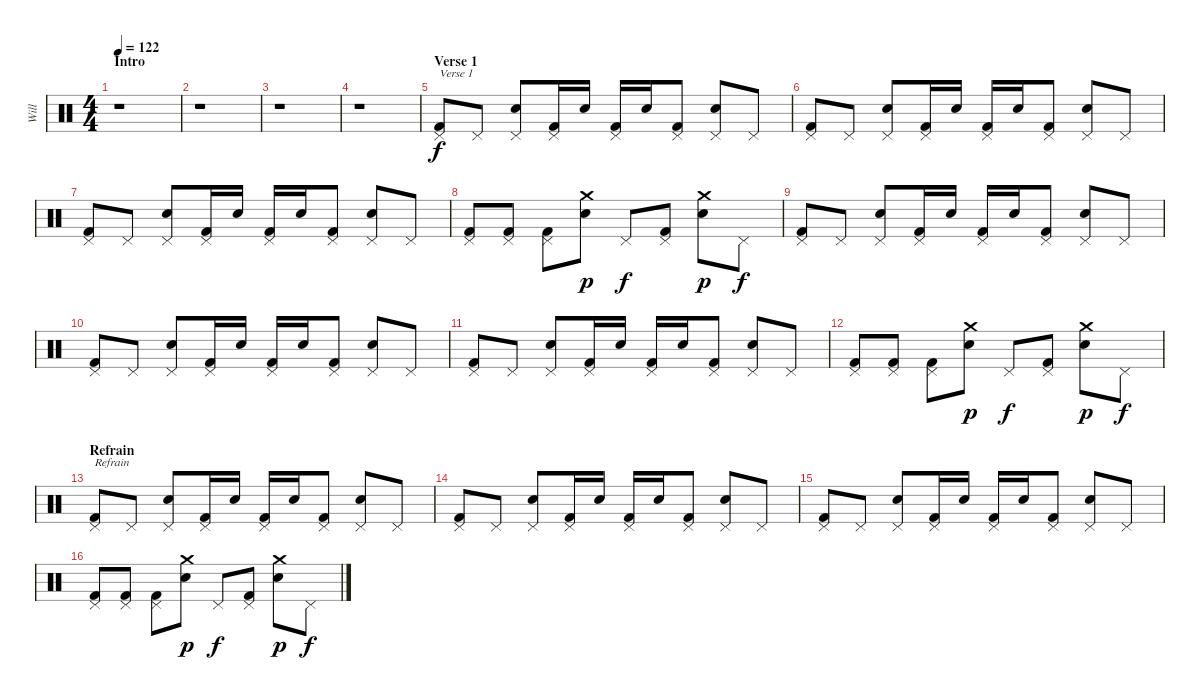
\track ("Will" "Will") {instrument percussion}
\staff {score}
\articulation defaults
\ts (4 4)
\section ("" "Intro")
\tempo 122
\clef neutral
\ks c
r.1{dy f} |
r.1 |
r.1 |
r.1 |
\section ("" "Verse 1")
("Pedal Hi-Hat (hit)" "Kick (hit) 2").8{txt "Verse 1"} "Pedal Hi-Hat (hit)".8 ("Pedal Hi-Hat (hit)" "Electric Snare (hit)").8 ("Pedal Hi-Hat (hit)" "Kick (hit) 2").16 "Electric Snare (hit)".16 ("Pedal Hi-Hat (hit)" "Kick (hit) 2").16 "Electric Snare (hit)".16 ("Pedal Hi-Hat (hit)" "Kick (hit) 2").8 ("Pedal Hi-Hat (hit)" "Electric Snare (hit)").8 "Pedal Hi-Hat (hit)".8 |
("Pedal Hi-Hat (hit)" "Kick (hit) 2").8 "Pedal Hi-Hat (hit)".8 ("Pedal Hi-Hat (hit)" "Electric Snare (hit)").8 ("Pedal Hi-Hat (hit)" "Kick (hit) 2").16 "Electric Snare (hit)".16 ("Pedal Hi-Hat (hit)" "Kick (hit) 2").16 "Electric Snare (hit)".16 ("Pedal Hi-Hat (hit)" "Kick (hit) 2").8 ("Pedal Hi-Hat (hit)" "Electric Snare (hit)").8 "Pedal Hi-Hat (hit)".8 |
("Pedal Hi-Hat (hit)" "Kick (hit) 2").8 "Pedal Hi-Hat (hit)".8 ("Pedal Hi-Hat (hit)" "Electric Snare (hit)").8 ("Pedal Hi-Hat (hit)" "Kick (hit) 2").16 "Electric Snare (hit)".16 ("Pedal Hi-Hat (hit)" "Kick (hit) 2").16 "Electric Snare (hit)".16 ("Pedal Hi-Hat (hit)" "Kick (hit) 2").8 ("Pedal Hi-Hat (hit)" "Electric Snare (hit)").8 "Pedal Hi-Hat (hit)".8 |
("Pedal Hi-Hat (hit)" "Kick (hit) 2").8 ("Pedal Hi-Hat (hit)" "Kick (hit) 2").8 ("Pedal Hi-Hat (hit)" "Kick (hit) 2").8 ("Crash medium (hit)" "Electric Snare (hit)").8{dy p} "Pedal Hi-Hat (hit)".8{dy f} ("Pedal Hi-Hat (hit)" "Kick (hit) 2").8 ("Crash medium (hit)" "Electric Snare (hit)").8{dy p} "Pedal Hi-Hat (hit)".8{dy f} |
("Pedal Hi-Hat (hit)" "Kick (hit) 2").8 "Pedal Hi-Hat (hit)".8 ("Pedal Hi-Hat (hit)" "Electric Snare (hit)").8 ("Pedal Hi-Hat (hit)" "Kick (hit) 2").16 "Electric Snare (hit)".16 ("Pedal Hi-Hat (hit)" "Kick (hit) 2").16 "Electric Snare (hit)".16 ("Pedal Hi-Hat (hit)" "Kick (hit) 2").8 ("Pedal Hi-Hat (hit)" "Electric Snare (hit)").8 "Pedal Hi-Hat (hit)".8 |
("Pedal Hi-Hat (hit)" "Kick (hit) 2").8 "Pedal Hi-Hat (hit)".8 ("Pedal Hi-Hat (hit)" "Electric Snare (hit)").8 ("Pedal Hi-Hat (hit)" "Kick (hit) 2").16 "Electric Snare (hit)".16 ("Pedal Hi-Hat (hit)" "Kick (hit) 2").16 "Electric Snare (hit)".16 ("Pedal Hi-Hat (hit)" "Kick (hit) 2").8 ("Pedal Hi-Hat (hit)" "Electric Snare (hit)").8 "Pedal Hi-Hat (hit)".8 |
("Pedal Hi-Hat (hit)" "Kick (hit) 2").8 "Pedal Hi-Hat (hit)".8 ("Pedal Hi-Hat (hit)" "Electric Snare (hit)").8 ("Pedal Hi-Hat (hit)" "Kick (hit) 2").16 "Electric Snare (hit)".16 ("Pedal Hi-Hat (hit)" "Kick (hit) 2").16 "Electric Snare (hit)".16 ("Pedal Hi-Hat (hit)" "Kick (hit) 2").8 ("Pedal Hi-Hat (hit)" "Electric Snare (hit)").8 "Pedal Hi-Hat (hit)".8 |
("Pedal Hi-Hat (hit)" "Kick (hit) 2").8 ("Pedal Hi-Hat (hit)" "Kick (hit) 2").8 ("Pedal Hi-Hat (hit)" "Kick (hit) 2").8 ("Crash medium (hit)" "Electric Snare (hit)").8{dy p} "Pedal Hi-Hat (hit)".8{dy f} ("Pedal Hi-Hat (hit)" "Kick (hit) 2").8 ("Crash medium (hit)" "Electric Snare (hit)").8{dy p} "Pedal Hi-Hat (hit)".8{dy f} |
\section ("" "Refrain")
("Pedal Hi-Hat (hit)" "Kick (hit) 2").8{txt "Refrain"} "Pedal Hi-Hat (hit)".8 ("Pedal Hi-Hat (hit)" "Electric Snare (hit)").8 ("Pedal Hi-Hat (hit)" "Kick (hit) 2").16 "Electric Snare (hit)".16 ("Pedal Hi-Hat (hit)" "Kick (hit) 2").16 "Electric Snare (hit)".16 ("Pedal Hi-Hat (hit)" "Kick (hit) 2").8 ("Pedal Hi-Hat (hit)" "Electric Snare (hit)").8 "Pedal Hi-Hat (hit)".8 |
("Pedal Hi-Hat (hit)" "Kick (hit) 2").8 "Pedal Hi-Hat (hit)".8 ("Pedal Hi-Hat (hit)" "Electric Snare (hit)").8 ("Pedal Hi-Hat (hit)" "Kick (hit) 2").16 "Electric Snare (hit)".16 ("Pedal Hi-Hat (hit)" "Kick (hit) 2").16 "Electric Snare (hit)".16 ("Pedal Hi-Hat (hit)" "Kick (hit) 2").8 ("Pedal Hi-Hat (hit)" "Electric Snare (hit)").8 "Pedal Hi-Hat (hit)".8 |
("Pedal Hi-Hat (hit)" "Kick (hit) 2").8 "Pedal Hi-Hat (hit)".8 ("Pedal Hi-Hat (hit)" "Electric Snare (hit)").8 ("Pedal Hi-Hat (hit)" "Kick (hit) 2").16 "Electric Snare (hit)".16 ("Pedal Hi-Hat (hit)" "Kick (hit) 2").16 "Electric Snare (hit)".16 ("Pedal Hi-Hat (hit)" "Kick (hit) 2").8 ("Pedal Hi-Hat (hit)" "Electric Snare (hit)").8 "Pedal Hi-Hat (hit)".8 |
("Pedal Hi-Hat (hit)" "Kick (hit) 2").8 ("Pedal Hi-Hat (hit)" "Kick (hit) 2").8 ("Pedal Hi-Hat (hit)" "Kick (hit) 2").8 ("Crash medium (hit)" "Electric Snare (hit)").8{dy p} "Pedal Hi-Hat (hit)".8{dy f} ("Pedal Hi-Hat (hit)" "Kick (hit) 2").8 ("Crash medium (hit)" "Electric Snare (hit)").8{dy p} "Pedal Hi-Hat (hit)".8{dy f}
